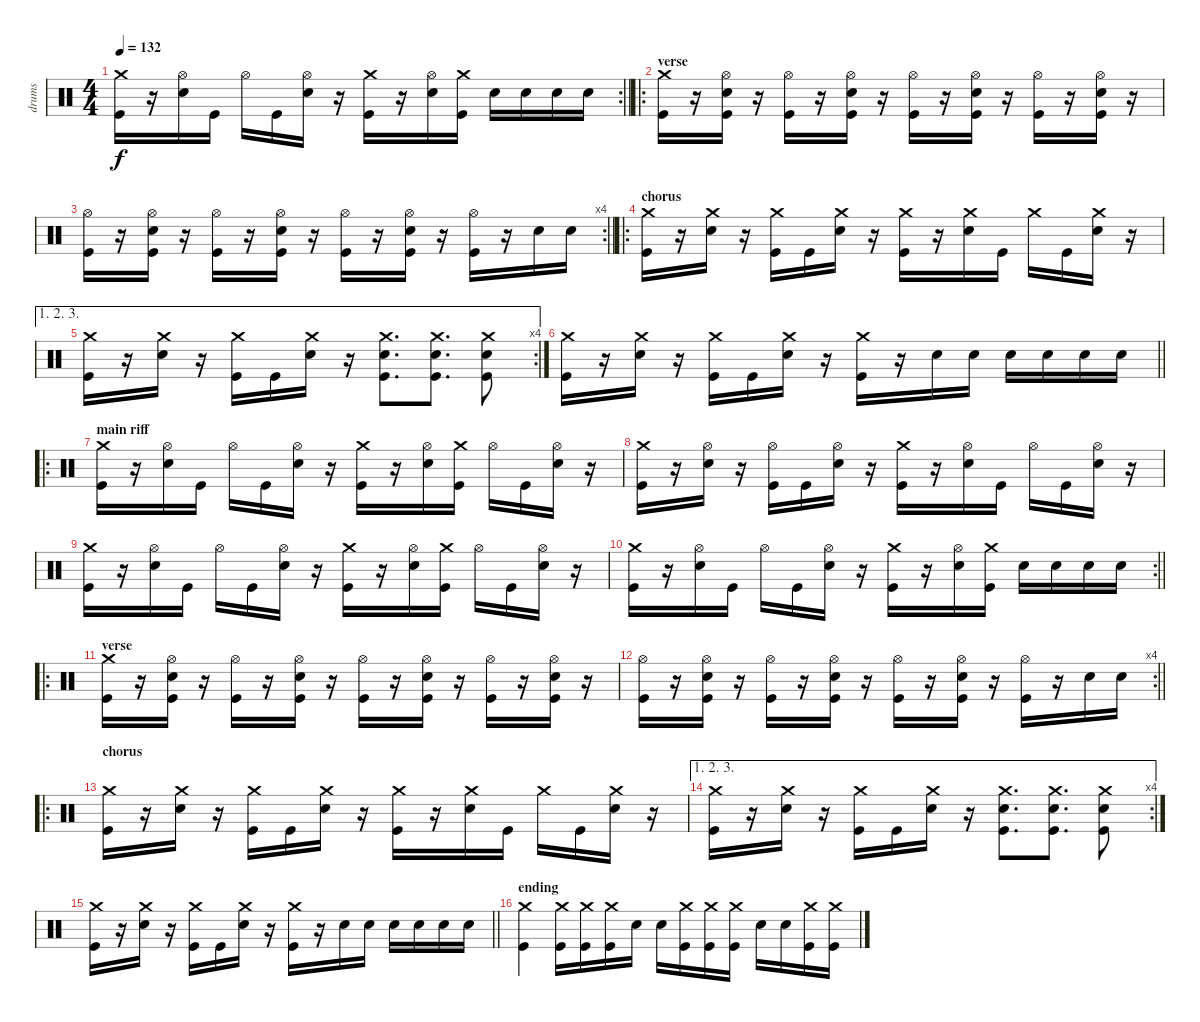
\track ("drums" "drums") {instrument percussion}
\staff {score}
\articulation defaults
\rc 2
\ts (4 4)
\tempo 132
\clef neutral
\barLineRight lightlight
\ks c
("Crash medium (hit)" "Kick (hit)").16{dy f} r.16 ("Hi-Hat (open)" "Snare (hit) 2").16 "Kick (hit)".16 "Hi-Hat (open)".16 "Kick (hit)".16 ("Hi-Hat (open)" "Snare (hit) 2").16 r.16 ("Crash medium (hit)" "Kick (hit)").16 r.16 ("Hi-Hat (open)" "Snare (hit) 2").16 ("Crash medium (hit)" "Kick (hit)").16 "Snare (hit) 2".16 "Snare (hit) 2".16 "Snare (hit) 2".16 "Snare (hit) 2".16 |
\ro
\section ("" "verse")
("Crash medium (hit)" "Kick (hit)").16 r.16 ("Hi-Hat (open)" "Snare (hit) 2" "Kick (hit)").16 r.16 ("Hi-Hat (open)" "Kick (hit)").16 r.16 ("Hi-Hat (open)" "Snare (hit) 2" "Kick (hit)").16 r.16 ("Hi-Hat (open)" "Kick (hit)").16 r.16 ("Hi-Hat (open)" "Snare (hit) 2" "Kick (hit)").16 r.16 ("Hi-Hat (open)" "Kick (hit)").16 r.16 ("Hi-Hat (open)" "Snare (hit) 2" "Kick (hit)").16 r.16 |
\rc 4
\barLineRight lightlight
("Hi-Hat (open)" "Kick (hit)").16 r.16 ("Hi-Hat (open)" "Snare (hit) 2" "Kick (hit)").16 r.16 ("Hi-Hat (open)" "Kick (hit)").16 r.16 ("Hi-Hat (open)" "Snare (hit) 2" "Kick (hit)").16 r.16 ("Hi-Hat (open)" "Kick (hit)").16 r.16 ("Hi-Hat (open)" "Snare (hit) 2" "Kick (hit)").16 r.16 ("Hi-Hat (open)" "Kick (hit)").16 r.16 "Snare (hit) 2".16 "Snare (hit) 2".16 |
\ro
\section ("" "chorus")
("Crash medium (hit)" "Kick (hit)").16 r.16 ("Crash medium (hit)" "Snare (hit) 2").16 r.16 ("Crash medium (hit)" "Kick (hit)").16 "Kick (hit)".16 ("Crash medium (hit)" "Snare (hit) 2").16 r.16 ("Crash medium (hit)" "Kick (hit)").16 r.16 ("Crash medium (hit)" "Snare (hit) 2").16 "Kick (hit)".16 "Crash medium (hit)".16 "Kick (hit)".16 ("Crash medium (hit)" "Snare (hit) 2").16 r.16 |
\ae (1 2 3)
\rc 4
("Crash medium (hit)" "Kick (hit)").16 r.16 ("Crash medium (hit)" "Snare (hit) 2").16 r.16 ("Crash medium (hit)" "Kick (hit)").16 "Kick (hit)".16 ("Crash medium (hit)" "Snare (hit) 2").16 r.16 ("Crash medium (hit)" "Snare (hit) 2" "Kick (hit)").8{d} ("Crash medium (hit)" "Snare (hit) 2" "Kick (hit)").8{d} ("Crash medium (hit)" "Snare (hit) 2" "Kick (hit)").8 |
\barLineRight lightlight
("Crash medium (hit)" "Kick (hit)").16 r.16 ("Crash medium (hit)" "Snare (hit) 2").16 r.16 ("Crash medium (hit)" "Kick (hit)").16 "Kick (hit)".16 ("Crash medium (hit)" "Snare (hit) 2").16 r.16 ("Crash medium (hit)" "Kick (hit)").16 r.16 "Snare (hit) 2".16 "Snare (hit) 2".16 "Snare (hit) 2".16 "Snare (hit) 2".16 "Snare (hit) 2".16 "Snare (hit) 2".16 |
\ro
\section ("" "main riff")
("Crash medium (hit)" "Kick (hit)").16 r.16 ("Hi-Hat (open)" "Snare (hit) 2").16 "Kick (hit)".16 "Hi-Hat (open)".16 "Kick (hit)".16 ("Hi-Hat (open)" "Snare (hit) 2").16 r.16 ("Crash medium (hit)" "Kick (hit)").16 r.16 ("Hi-Hat (open)" "Snare (hit) 2").16 ("Crash medium (hit)" "Kick (hit)").16 "Hi-Hat (open)".16 "Kick (hit)".16 ("Hi-Hat (open)" "Snare (hit) 2").16 r.16 |
("Crash medium (hit)" "Kick (hit)").16 r.16 ("Hi-Hat (open)" "Snare (hit) 2").16 r.16 ("Hi-Hat (open)" "Kick (hit)").16 "Kick (hit)".16 ("Hi-Hat (open)" "Snare (hit) 2").16 r.16 ("Crash medium (hit)" "Kick (hit)").16 r.16 ("Hi-Hat (open)" "Snare (hit) 2").16 "Kick (hit)".16 "Hi-Hat (open)".16 "Kick (hit)".16 ("Hi-Hat (open)" "Snare (hit) 2").16 r.16 |
("Crash medium (hit)" "Kick (hit)").16 r.16 ("Hi-Hat (open)" "Snare (hit) 2").16 "Kick (hit)".16 "Hi-Hat (open)".16 "Kick (hit)".16 ("Hi-Hat (open)" "Snare (hit) 2").16 r.16 ("Crash medium (hit)" "Kick (hit)").16 r.16 ("Hi-Hat (open)" "Snare (hit) 2").16 ("Crash medium (hit)" "Kick (hit)").16 "Hi-Hat (open)".16 "Kick (hit)".16 ("Hi-Hat (open)" "Snare (hit) 2").16 r.16 |
\rc 2
\barLineRight lightlight
("Crash medium (hit)" "Kick (hit)").16 r.16 ("Hi-Hat (open)" "Snare (hit) 2").16 "Kick (hit)".16 "Hi-Hat (open)".16 "Kick (hit)".16 ("Hi-Hat (open)" "Snare (hit) 2").16 r.16 ("Crash medium (hit)" "Kick (hit)").16 r.16 ("Hi-Hat (open)" "Snare (hit) 2").16 ("Crash medium (hit)" "Kick (hit)").16 "Snare (hit) 2".16 "Snare (hit) 2".16 "Snare (hit) 2".16 "Snare (hit) 2".16 |
\ro
\section ("" "verse")
("Crash medium (hit)" "Kick (hit)").16 r.16 ("Hi-Hat (open)" "Snare (hit) 2" "Kick (hit)").16 r.16 ("Hi-Hat (open)" "Kick (hit)").16 r.16 ("Hi-Hat (open)" "Snare (hit) 2" "Kick (hit)").16 r.16 ("Hi-Hat (open)" "Kick (hit)").16 r.16 ("Hi-Hat (open)" "Snare (hit) 2" "Kick (hit)").16 r.16 ("Hi-Hat (open)" "Kick (hit)").16 r.16 ("Hi-Hat (open)" "Snare (hit) 2" "Kick (hit)").16 r.16 |
\rc 4
\barLineRight lightlight
("Hi-Hat (open)" "Kick (hit)").16 r.16 ("Hi-Hat (open)" "Snare (hit) 2" "Kick (hit)").16 r.16 ("Hi-Hat (open)" "Kick (hit)").16 r.16 ("Hi-Hat (open)" "Snare (hit) 2" "Kick (hit)").16 r.16 ("Hi-Hat (open)" "Kick (hit)").16 r.16 ("Hi-Hat (open)" "Snare (hit) 2" "Kick (hit)").16 r.16 ("Hi-Hat (open)" "Kick (hit)").16 r.16 "Snare (hit) 2".16 "Snare (hit) 2".16 |
\ro
\section ("" "chorus")
("Crash medium (hit)" "Kick (hit)").16 r.16 ("Crash medium (hit)" "Snare (hit) 2").16 r.16 ("Crash medium (hit)" "Kick (hit)").16 "Kick (hit)".16 ("Crash medium (hit)" "Snare (hit) 2").16 r.16 ("Crash medium (hit)" "Kick (hit)").16 r.16 ("Crash medium (hit)" "Snare (hit) 2").16 "Kick (hit)".16 "Crash medium (hit)".16 "Kick (hit)".16 ("Crash medium (hit)" "Snare (hit) 2").16 r.16 |
\ae (1 2 3)
\rc 4
("Crash medium (hit)" "Kick (hit)").16 r.16 ("Crash medium (hit)" "Snare (hit) 2").16 r.16 ("Crash medium (hit)" "Kick (hit)").16 "Kick (hit)".16 ("Crash medium (hit)" "Snare (hit) 2").16 r.16 ("Crash medium (hit)" "Snare (hit) 2" "Kick (hit)").8{d} ("Crash medium (hit)" "Snare (hit) 2" "Kick (hit)").8{d} ("Crash medium (hit)" "Snare (hit) 2" "Kick (hit)").8 |
\barLineRight lightlight
("Crash medium (hit)" "Kick (hit)").16 r.16 ("Crash medium (hit)" "Snare (hit) 2").16 r.16 ("Crash medium (hit)" "Kick (hit)").16 "Kick (hit)".16 ("Crash medium (hit)" "Snare (hit) 2").16 r.16 ("Crash medium (hit)" "Kick (hit)").16 r.16 "Snare (hit) 2".16 "Snare (hit) 2".16 "Snare (hit) 2".16 "Snare (hit) 2".16 "Snare (hit) 2".16 "Snare (hit) 2".16 |
\section ("" "ending")
("Crash medium (hit)" "Kick (hit)").4 ("Crash medium (hit)" "Kick (hit)").16 ("Crash medium (hit)" "Kick (hit)").16 ("Crash medium (hit)" "Kick (hit)").16 "Snare (hit) 2".16 "Snare (hit) 2".16 ("Crash medium (hit)" "Kick (hit)").16 ("Crash medium (hit)" "Kick (hit)").16 ("Crash medium (hit)" "Kick (hit)").16 "Snare (hit) 2".16 "Snare (hit) 2".16 ("Crash medium (hit)" "Kick (hit)").16 ("Crash medium (hit)" "Kick (hit)").16
